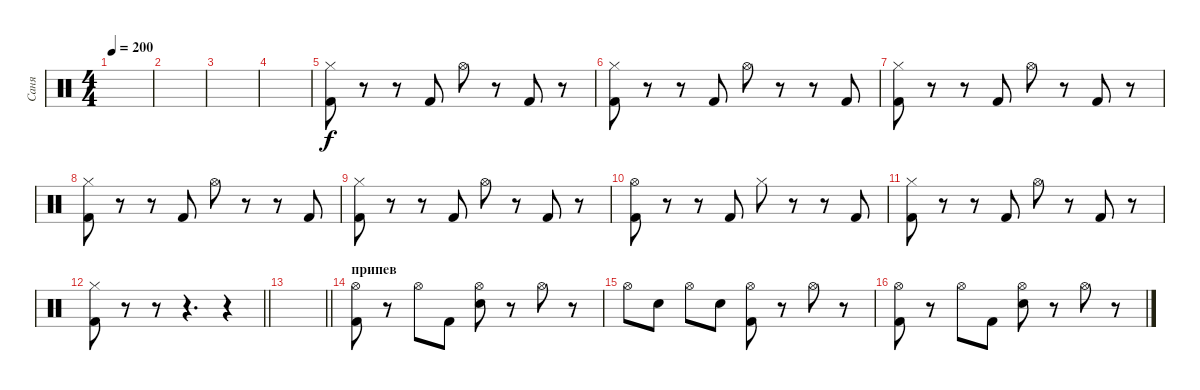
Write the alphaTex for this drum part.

\track ("Саня" "Саня") {instrument percussion}
\staff {score}
\articulation defaults
\ts (4 4)
\tempo 200
\clef neutral
\ks c
|
|
|
|
("Hi-Hat (closed)" "Kick (hit) 2").8 r.8 r.8 "Kick (hit) 2".8 "Hi-Hat (open)".8 r.8 "Kick (hit) 2".8 r.8 |
("Hi-Hat (closed)" "Kick (hit) 2").8 r.8 r.8 "Kick (hit) 2".8 "Hi-Hat (open)".8 r.8 r.8 "Kick (hit) 2".8 |
("Hi-Hat (closed)" "Kick (hit) 2").8 r.8 r.8 "Kick (hit) 2".8 "Hi-Hat (open)".8 r.8 "Kick (hit) 2".8 r.8 |
("Hi-Hat (closed)" "Kick (hit) 2").8 r.8 r.8 "Kick (hit) 2".8 "Hi-Hat (open)".8 r.8 r.8 "Kick (hit) 2".8 |
("Hi-Hat (closed)" "Kick (hit) 2").8 r.8 r.8 "Kick (hit) 2".8 "Hi-Hat (open)".8 r.8 "Kick (hit) 2".8 r.8 |
("Hi-Hat (open)" "Kick (hit) 2").8 r.8 r.8 "Kick (hit) 2".8 "Hi-Hat (closed)".8 r.8 r.8 "Kick (hit) 2".8 |
("Hi-Hat (closed)" "Kick (hit) 2").8 r.8 r.8 "Kick (hit) 2".8 "Hi-Hat (open)".8 r.8 "Kick (hit) 2".8 r.8 |
\barLineRight lightlight
("Hi-Hat (closed)" "Kick (hit) 2").8 r.8 r.8 r.4{d} r.4 |
\barLineRight lightlight
|
\section ("" "припев")
("Hi-Hat (open)" "Kick (hit) 2").8 r.8 "Hi-Hat (open)".8 "Kick (hit) 2".8 ("Hi-Hat (open)" "Electric Snare (hit)").8 r.8 "Hi-Hat (open)".8 r.8 |
"Hi-Hat (open)".8 "Electric Snare (hit)".8 "Hi-Hat (open)".8 "Electric Snare (hit)".8 ("Hi-Hat (open)" "Kick (hit) 2").8 r.8 "Hi-Hat (open)".8 r.8 |
("Hi-Hat (open)" "Kick (hit) 2").8 r.8 "Hi-Hat (open)".8 "Kick (hit) 2".8 ("Hi-Hat (open)" "Electric Snare (hit)").8 r.8 "Hi-Hat (open)".8 r.8
